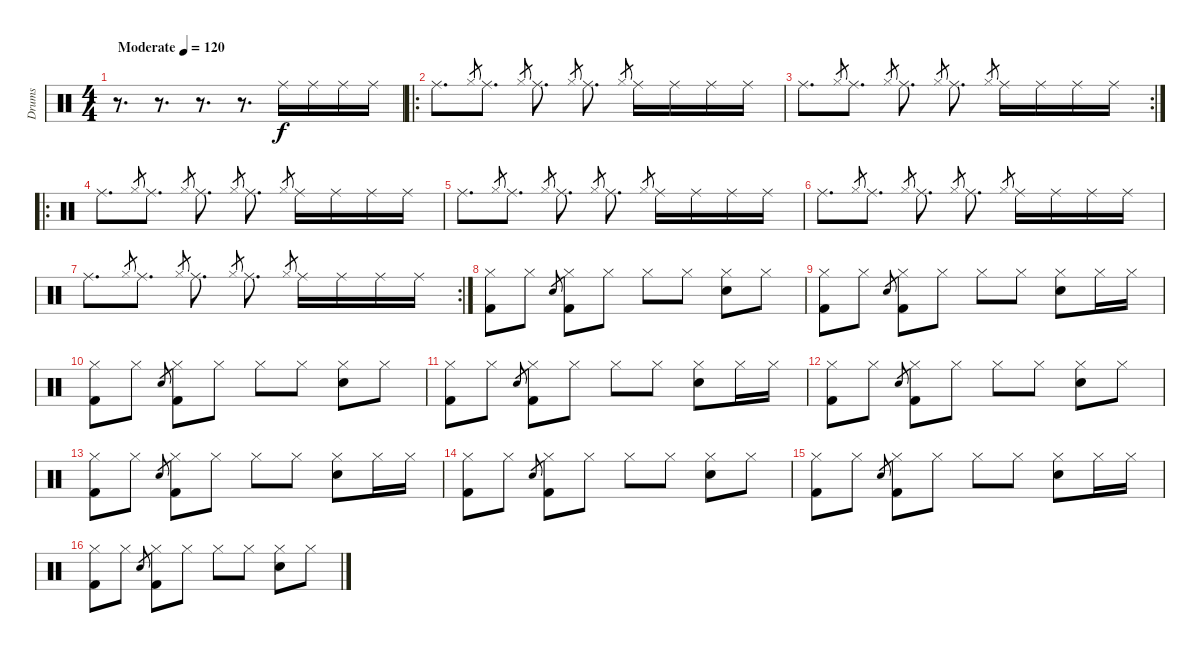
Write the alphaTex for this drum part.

\track ("Drums" "Drums") {instrument percussion}
\staff {score}
\articulation defaults
\ts (4 4)
\tempo (120 "Moderate")
\clef neutral
\ks c
r.8{d dy f} r.8{d} r.8{d} r.8{d} "Ride (middle)".16 "Ride (middle)".16 "Ride (middle)".16 "Ride (middle)".16 |
\ro "Ride (middle)".8{d} "Hi-Hat (closed)".8{gr} "Ride (middle)".8{d} "Hi-Hat (closed)".8{gr} "Ride (middle)".8{d} "Hi-Hat (closed)".8{gr} "Ride (middle)".8{d} "Hi-Hat (closed)".8{gr} "Ride (middle)".16 "Ride (middle)".16 "Ride (middle)".16 "Ride (middle)".16
|
\rc 2 "Ride (middle)".8{d} "Hi-Hat (closed)".8{gr} "Ride (middle)".8{d} "Hi-Hat (closed)".8{gr} "Ride (middle)".8{d} "Hi-Hat (closed)".8{gr} "Ride (middle)".8{d} "Hi-Hat (closed)".8{gr} "Ride (middle)".16 "Ride (middle)".16 "Ride (middle)".16 "Ride (middle)".16
|
\ro "Ride (middle)".8{d} "Hi-Hat (closed)".8{gr} "Ride (middle)".8{d} "Hi-Hat (closed)".8{gr} "Ride (middle)".8{d} "Hi-Hat (closed)".8{gr} "Ride (middle)".8{d} "Hi-Hat (closed)".8{gr} "Ride (middle)".16 "Ride (middle)".16 "Ride (middle)".16 "Ride (middle)".16
|
"Ride (middle)".8{d} "Hi-Hat (closed)".8{gr} "Ride (middle)".8{d} "Hi-Hat (closed)".8{gr} "Ride (middle)".8{d} "Hi-Hat (closed)".8{gr} "Ride (middle)".8{d} "Hi-Hat (closed)".8{gr} "Ride (middle)".16 "Ride (middle)".16 "Ride (middle)".16 "Ride (middle)".16 |
"Ride (middle)".8{d} "Hi-Hat (closed)".8{gr} "Ride (middle)".8{d} "Hi-Hat (closed)".8{gr} "Ride (middle)".8{d} "Hi-Hat (closed)".8{gr} "Ride (middle)".8{d} "Hi-Hat (closed)".8{gr} "Ride (middle)".16 "Ride (middle)".16 "Ride (middle)".16 "Ride (middle)".16 |
\rc 2 "Ride (middle)".8{d} "Hi-Hat (closed)".8{gr} "Ride (middle)".8{d} "Hi-Hat (closed)".8{gr} "Ride (middle)".8{d} "Hi-Hat (closed)".8{gr} "Ride (middle)".8{d} "Hi-Hat (closed)".8{gr} "Ride (middle)".16 "Ride (middle)".16 "Ride (middle)".16 "Ride (middle)".16
|
("Hi-Hat (closed)" "Kick (hit) 2").8 "Hi-Hat (closed)".8 "Electric Snare (hit)".8{gr} ("Hi-Hat (closed)" "Kick (hit) 2").8 "Hi-Hat (closed)".8 "Hi-Hat (closed)".8 "Hi-Hat (closed)".8 ("Hi-Hat (closed)" "Electric Snare (hit)").8 "Hi-Hat (closed)".8 |
("Hi-Hat (closed)" "Kick (hit) 2").8 "Hi-Hat (closed)".8 "Electric Snare (hit)".8{gr} ("Hi-Hat (closed)" "Kick (hit) 2").8 "Hi-Hat (closed)".8 "Hi-Hat (closed)".8 "Hi-Hat (closed)".8 ("Hi-Hat (closed)" "Electric Snare (hit)").8 "Hi-Hat (closed)".16 "Hi-Hat (closed)".16 |
("Hi-Hat (closed)" "Kick (hit) 2").8 "Hi-Hat (closed)".8 "Electric Snare (hit)".8{gr} ("Hi-Hat (closed)" "Kick (hit) 2").8 "Hi-Hat (closed)".8 "Hi-Hat (closed)".8 "Hi-Hat (closed)".8 ("Hi-Hat (closed)" "Electric Snare (hit)").8 "Hi-Hat (closed)".8 |
("Hi-Hat (closed)" "Kick (hit) 2").8 "Hi-Hat (closed)".8 "Electric Snare (hit)".8{gr} ("Hi-Hat (closed)" "Kick (hit) 2").8 "Hi-Hat (closed)".8 "Hi-Hat (closed)".8 "Hi-Hat (closed)".8 ("Hi-Hat (closed)" "Electric Snare (hit)").8 "Hi-Hat (closed)".16 "Hi-Hat (closed)".16 |
("Hi-Hat (closed)" "Kick (hit) 2").8 "Hi-Hat (closed)".8 "Electric Snare (hit)".8{gr} ("Hi-Hat (closed)" "Kick (hit) 2").8 "Hi-Hat (closed)".8 "Hi-Hat (closed)".8 "Hi-Hat (closed)".8 ("Hi-Hat (closed)" "Electric Snare (hit)").8 "Hi-Hat (closed)".8 |
("Hi-Hat (closed)" "Kick (hit) 2").8 "Hi-Hat (closed)".8 "Electric Snare (hit)".8{gr} ("Hi-Hat (closed)" "Kick (hit) 2").8 "Hi-Hat (closed)".8 "Hi-Hat (closed)".8 "Hi-Hat (closed)".8 ("Hi-Hat (closed)" "Electric Snare (hit)").8 "Hi-Hat (closed)".16 "Hi-Hat (closed)".16 |
("Hi-Hat (closed)" "Kick (hit) 2").8 "Hi-Hat (closed)".8 "Electric Snare (hit)".8{gr} ("Hi-Hat (closed)" "Kick (hit) 2").8 "Hi-Hat (closed)".8 "Hi-Hat (closed)".8 "Hi-Hat (closed)".8 ("Hi-Hat (closed)" "Electric Snare (hit)").8 "Hi-Hat (closed)".8 |
("Hi-Hat (closed)" "Kick (hit) 2").8 "Hi-Hat (closed)".8 "Electric Snare (hit)".8{gr} ("Hi-Hat (closed)" "Kick (hit) 2").8 "Hi-Hat (closed)".8 "Hi-Hat (closed)".8 "Hi-Hat (closed)".8 ("Hi-Hat (closed)" "Electric Snare (hit)").8 "Hi-Hat (closed)".16 "Hi-Hat (closed)".16 |
("Hi-Hat (closed)" "Kick (hit) 2").8 "Hi-Hat (closed)".8 "Electric Snare (hit)".8{gr} ("Hi-Hat (closed)" "Kick (hit) 2").8 "Hi-Hat (closed)".8 "Hi-Hat (closed)".8 "Hi-Hat (closed)".8 ("Hi-Hat (closed)" "Electric Snare (hit)").8 "Hi-Hat (closed)".8
